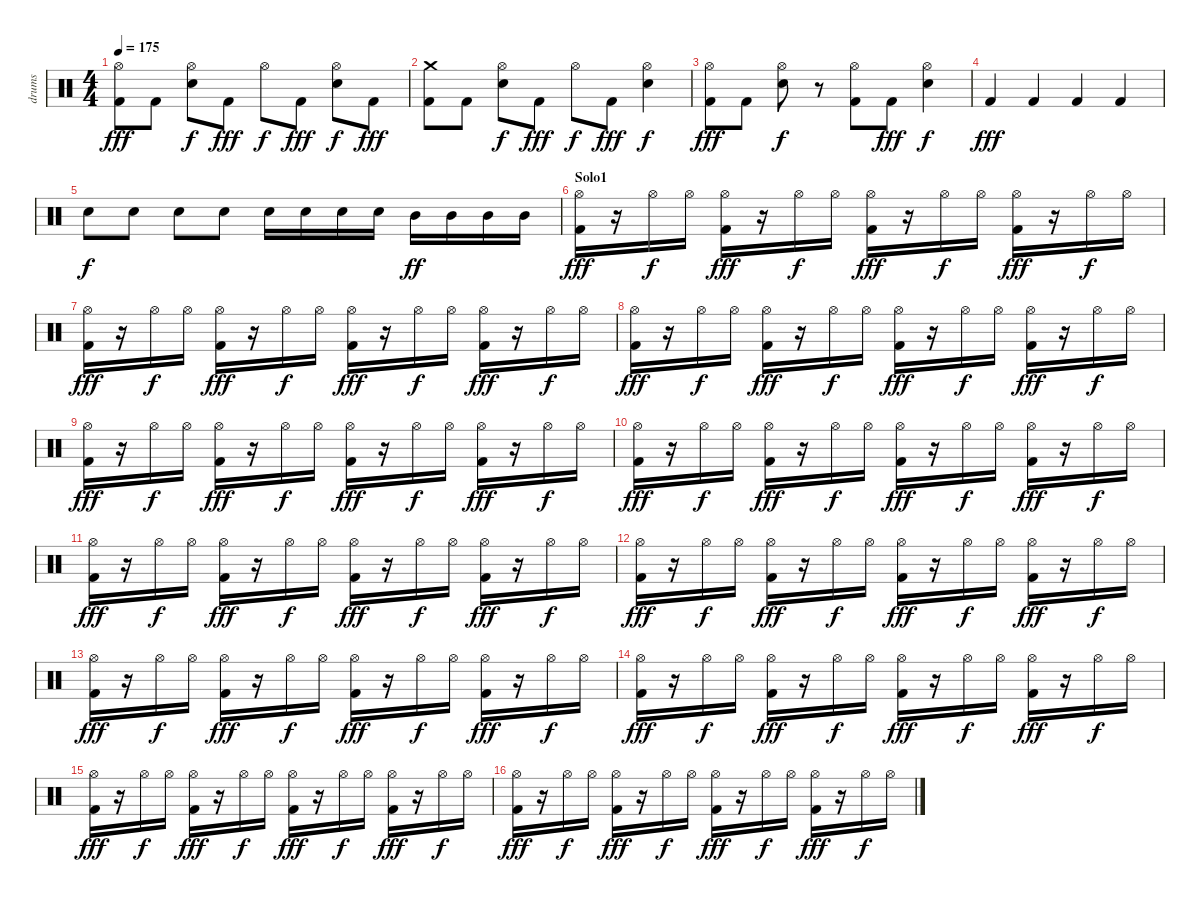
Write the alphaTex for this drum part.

\track ("drums" "drums") {instrument percussion}
\staff {score}
\articulation defaults
\ts (4 4)
\tempo 175
\clef neutral
\ks c
("Hi-Hat (open)" "Kick (hit) 2").8{dy fff} "Kick (hit) 2".8 ("Hi-Hat (open)" "Snare (hit) 2").8{dy f} "Kick (hit) 2".8{dy fff} "Hi-Hat (open)".8{dy f} "Kick (hit) 2".8{dy fff} ("Hi-Hat (open)" "Snare (hit) 2").8{dy f} "Kick (hit) 2".8{dy fff} |
("Crash medium (hit)" "Kick (hit) 2").8 "Kick (hit) 2".8 ("Hi-Hat (open)" "Snare (hit) 2").8{dy f} "Kick (hit) 2".8{dy fff} "Hi-Hat (open)".8{dy f} "Kick (hit) 2".8{dy fff} ("Hi-Hat (open)" "Snare (hit) 2").4{dy f} |
("Hi-Hat (open)" "Kick (hit) 2").8{dy fff} "Kick (hit) 2".8 ("Hi-Hat (open)" "Snare (hit) 2").8{dy f} r.8 ("Hi-Hat (open)" "Kick (hit) 2").8 "Kick (hit) 2".8{dy fff} ("Hi-Hat (open)" "Snare (hit) 2").4{dy f} |
"Kick (hit) 2".4{dy fff} "Kick (hit) 2".4 "Kick (hit) 2".4 "Kick (hit) 2".4 |
"Snare (hit) 2".8{dy f} "Snare (hit) 2".8 "Snare (hit) 2".8 "Snare (hit) 2".8 "Snare (hit) 2".16 "Snare (hit) 2".16 "Snare (hit) 2".16 "Snare (hit) 2".16 "Mid Tom (hit)".16{dy ff} "Mid Tom (hit)".16 "Mid Tom (hit)".16 "Mid Tom (hit)".16 |
\section ("" "Solo1")
("Hi-Hat (open)" "Kick (hit) 2").16{dy fff} r.16 "Hi-Hat (open)".16{dy f} "Hi-Hat (open)".16 ("Hi-Hat (open)" "Kick (hit) 2").16{dy fff} r.16 "Hi-Hat (open)".16{dy f} "Hi-Hat (open)".16 ("Hi-Hat (open)" "Kick (hit) 2").16{dy fff} r.16 "Hi-Hat (open)".16{dy f} "Hi-Hat (open)".16 ("Hi-Hat (open)" "Kick (hit) 2").16{dy fff} r.16 "Hi-Hat (open)".16{dy f} "Hi-Hat (open)".16 |
("Hi-Hat (open)" "Kick (hit) 2").16{dy fff} r.16 "Hi-Hat (open)".16{dy f} "Hi-Hat (open)".16 ("Hi-Hat (open)" "Kick (hit) 2").16{dy fff} r.16 "Hi-Hat (open)".16{dy f} "Hi-Hat (open)".16 ("Hi-Hat (open)" "Kick (hit) 2").16{dy fff} r.16 "Hi-Hat (open)".16{dy f} "Hi-Hat (open)".16 ("Hi-Hat (open)" "Kick (hit) 2").16{dy fff} r.16 "Hi-Hat (open)".16{dy f} "Hi-Hat (open)".16 |
("Hi-Hat (open)" "Kick (hit) 2").16{dy fff} r.16 "Hi-Hat (open)".16{dy f} "Hi-Hat (open)".16 ("Hi-Hat (open)" "Kick (hit) 2").16{dy fff} r.16 "Hi-Hat (open)".16{dy f} "Hi-Hat (open)".16 ("Hi-Hat (open)" "Kick (hit) 2").16{dy fff} r.16 "Hi-Hat (open)".16{dy f} "Hi-Hat (open)".16 ("Hi-Hat (open)" "Kick (hit) 2").16{dy fff} r.16 "Hi-Hat (open)".16{dy f} "Hi-Hat (open)".16 |
("Hi-Hat (open)" "Kick (hit) 2").16{dy fff} r.16 "Hi-Hat (open)".16{dy f} "Hi-Hat (open)".16 ("Hi-Hat (open)" "Kick (hit) 2").16{dy fff} r.16 "Hi-Hat (open)".16{dy f} "Hi-Hat (open)".16 ("Hi-Hat (open)" "Kick (hit) 2").16{dy fff} r.16 "Hi-Hat (open)".16{dy f} "Hi-Hat (open)".16 ("Hi-Hat (open)" "Kick (hit) 2").16{dy fff} r.16 "Hi-Hat (open)".16{dy f} "Hi-Hat (open)".16 |
("Hi-Hat (open)" "Kick (hit) 2").16{dy fff} r.16 "Hi-Hat (open)".16{dy f} "Hi-Hat (open)".16 ("Hi-Hat (open)" "Kick (hit) 2").16{dy fff} r.16 "Hi-Hat (open)".16{dy f} "Hi-Hat (open)".16 ("Hi-Hat (open)" "Kick (hit) 2").16{dy fff} r.16 "Hi-Hat (open)".16{dy f} "Hi-Hat (open)".16 ("Hi-Hat (open)" "Kick (hit) 2").16{dy fff} r.16 "Hi-Hat (open)".16{dy f} "Hi-Hat (open)".16 |
("Hi-Hat (open)" "Kick (hit) 2").16{dy fff} r.16 "Hi-Hat (open)".16{dy f} "Hi-Hat (open)".16 ("Hi-Hat (open)" "Kick (hit) 2").16{dy fff} r.16 "Hi-Hat (open)".16{dy f} "Hi-Hat (open)".16 ("Hi-Hat (open)" "Kick (hit) 2").16{dy fff} r.16 "Hi-Hat (open)".16{dy f} "Hi-Hat (open)".16 ("Hi-Hat (open)" "Kick (hit) 2").16{dy fff} r.16 "Hi-Hat (open)".16{dy f} "Hi-Hat (open)".16 |
("Hi-Hat (open)" "Kick (hit) 2").16{dy fff} r.16 "Hi-Hat (open)".16{dy f} "Hi-Hat (open)".16 ("Hi-Hat (open)" "Kick (hit) 2").16{dy fff} r.16 "Hi-Hat (open)".16{dy f} "Hi-Hat (open)".16 ("Hi-Hat (open)" "Kick (hit) 2").16{dy fff} r.16 "Hi-Hat (open)".16{dy f} "Hi-Hat (open)".16 ("Hi-Hat (open)" "Kick (hit) 2").16{dy fff} r.16 "Hi-Hat (open)".16{dy f} "Hi-Hat (open)".16 |
("Hi-Hat (open)" "Kick (hit) 2").16{dy fff} r.16 "Hi-Hat (open)".16{dy f} "Hi-Hat (open)".16 ("Hi-Hat (open)" "Kick (hit) 2").16{dy fff} r.16 "Hi-Hat (open)".16{dy f} "Hi-Hat (open)".16 ("Hi-Hat (open)" "Kick (hit) 2").16{dy fff} r.16 "Hi-Hat (open)".16{dy f} "Hi-Hat (open)".16 ("Hi-Hat (open)" "Kick (hit) 2").16{dy fff} r.16 "Hi-Hat (open)".16{dy f} "Hi-Hat (open)".16 |
("Hi-Hat (open)" "Kick (hit) 2").16{dy fff} r.16 "Hi-Hat (open)".16{dy f} "Hi-Hat (open)".16 ("Hi-Hat (open)" "Kick (hit) 2").16{dy fff} r.16 "Hi-Hat (open)".16{dy f} "Hi-Hat (open)".16 ("Hi-Hat (open)" "Kick (hit) 2").16{dy fff} r.16 "Hi-Hat (open)".16{dy f} "Hi-Hat (open)".16 ("Hi-Hat (open)" "Kick (hit) 2").16{dy fff} r.16 "Hi-Hat (open)".16{dy f} "Hi-Hat (open)".16 |
("Hi-Hat (open)" "Kick (hit) 2").16{dy fff} r.16 "Hi-Hat (open)".16{dy f} "Hi-Hat (open)".16 ("Hi-Hat (open)" "Kick (hit) 2").16{dy fff} r.16 "Hi-Hat (open)".16{dy f} "Hi-Hat (open)".16 ("Hi-Hat (open)" "Kick (hit) 2").16{dy fff} r.16 "Hi-Hat (open)".16{dy f} "Hi-Hat (open)".16 ("Hi-Hat (open)" "Kick (hit) 2").16{dy fff} r.16 "Hi-Hat (open)".16{dy f} "Hi-Hat (open)".16 |
("Hi-Hat (open)" "Kick (hit) 2").16{dy fff} r.16 "Hi-Hat (open)".16{dy f} "Hi-Hat (open)".16 ("Hi-Hat (open)" "Kick (hit) 2").16{dy fff} r.16 "Hi-Hat (open)".16{dy f} "Hi-Hat (open)".16 ("Hi-Hat (open)" "Kick (hit) 2").16{dy fff} r.16 "Hi-Hat (open)".16{dy f} "Hi-Hat (open)".16 ("Hi-Hat (open)" "Kick (hit) 2").16{dy fff} r.16 "Hi-Hat (open)".16{dy f} "Hi-Hat (open)".16
